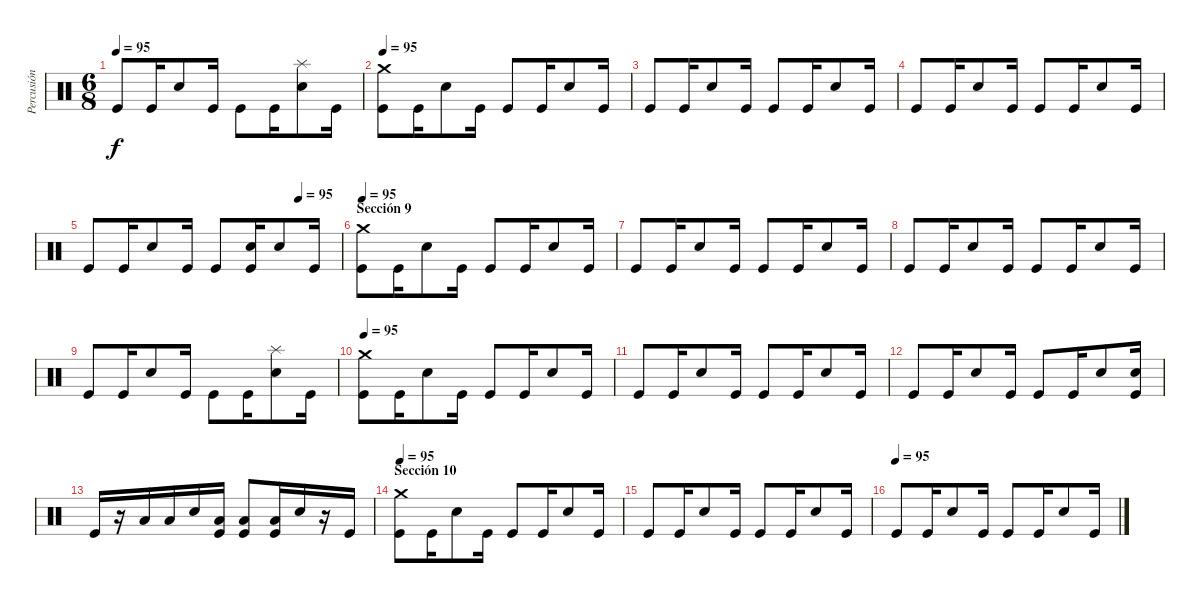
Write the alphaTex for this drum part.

\track ("Percusión" "Percusión") {instrument percussion}
\staff {score}
\articulation defaults
\ts (6 8)
\tempo 95
\clef neutral
\ks c "Kick (hit)".8{dy f} "Kick (hit)".16 "Electric Snare (hit)".8 "Kick (hit)".16 "Kick (hit)".8 "Kick (hit)".16
("Splash (hit)" "Electric Snare (hit)").8 "Kick (hit)".16 |
\tempo 95
("Crash medium (hit)" "Kick (hit)").8 "Kick (hit)".16 "Electric Snare (hit)".8 "Kick (hit)".16 "Kick (hit)".8 "Kick (hit)".16 "Electric Snare (hit)".8 "Kick (hit)".16 |
"Kick (hit)".8 "Kick (hit)".16 "Electric Snare (hit)".8 "Kick (hit)".16 "Kick (hit)".8 "Kick (hit)".16 "Electric Snare (hit)".8 "Kick (hit)".16 |
"Kick (hit)".8 "Kick (hit)".16 "Electric Snare (hit)".8 "Kick (hit)".16 "Kick (hit)".8 "Kick (hit)".16 "Electric Snare (hit)".8 "Kick (hit)".16 |
\tempo (95 0.8333333333333334)
"Kick (hit)".8 "Kick (hit)".16 "Electric Snare (hit)".8 "Kick (hit)".16 "Kick (hit)".8 ("Electric Snare (hit)" "Kick (hit)").16 "Electric Snare (hit)".8 "Kick (hit)".16 |
\section ("" "Sección 9")
\tempo 95
("Crash medium (hit)" "Kick (hit)").8 "Kick (hit)".16 "Electric Snare (hit)".8 "Kick (hit)".16 "Kick (hit)".8 "Kick (hit)".16 "Electric Snare (hit)".8 "Kick (hit)".16 |
"Kick (hit)".8 "Kick (hit)".16 "Electric Snare (hit)".8 "Kick (hit)".16 "Kick (hit)".8 "Kick (hit)".16 "Electric Snare (hit)".8 "Kick (hit)".16 |
"Kick (hit)".8 "Kick (hit)".16 "Electric Snare (hit)".8 "Kick (hit)".16 "Kick (hit)".8 "Kick (hit)".16 "Electric Snare (hit)".8 "Kick (hit)".16 |
"Kick (hit)".8 "Kick (hit)".16 "Electric Snare (hit)".8 "Kick (hit)".16 "Kick (hit)".8 "Kick (hit)".16 ("Splash (hit)" "Electric Snare (hit)").8 "Kick (hit)".16 |
\tempo 95
("Crash medium (hit)" "Kick (hit)").8 "Kick (hit)".16 "Electric Snare (hit)".8 "Kick (hit)".16 "Kick (hit)".8 "Kick (hit)".16 "Electric Snare (hit)".8 "Kick (hit)".16 |
"Kick (hit)".8 "Kick (hit)".16 "Electric Snare (hit)".8 "Kick (hit)".16 "Kick (hit)".8 "Kick (hit)".16 "Electric Snare (hit)".8 "Kick (hit)".16 |
"Kick (hit)".8 "Kick (hit)".16 "Electric Snare (hit)".8 "Kick (hit)".16 "Kick (hit)".8 "Kick (hit)".16 "Electric Snare (hit)".8 ("Electric Snare (hit)" "Kick (hit)").16 |
"Kick (hit)".16 r.16 "Low Tom (hit)".16 "Low Tom (hit)".16 "Electric Snare (hit)".16 ("Low Tom (hit)" "Kick (hit)").16 ("Low Tom (hit)" "Kick (hit)").8 ("Low Tom (hit)" "Kick (hit)").16 "Electric Snare (hit)".16 r.16 "Kick (hit)".16 |
\section ("" "Sección 10")
\tempo 95
("Crash medium (hit)" "Kick (hit)").8 "Kick (hit)".16 "Electric Snare (hit)".8 "Kick (hit)".16 "Kick (hit)".8 "Kick (hit)".16 "Electric Snare (hit)".8 "Kick (hit)".16 |
"Kick (hit)".8 "Kick (hit)".16 "Electric Snare (hit)".8 "Kick (hit)".16 "Kick (hit)".8 "Kick (hit)".16 "Electric Snare (hit)".8 "Kick (hit)".16 |
\tempo (95)
"Kick (hit)".8 "Kick (hit)".16 "Electric Snare (hit)".8 "Kick (hit)".16 "Kick (hit)".8 "Kick (hit)".16 "Electric Snare (hit)".8 "Kick (hit)".16
